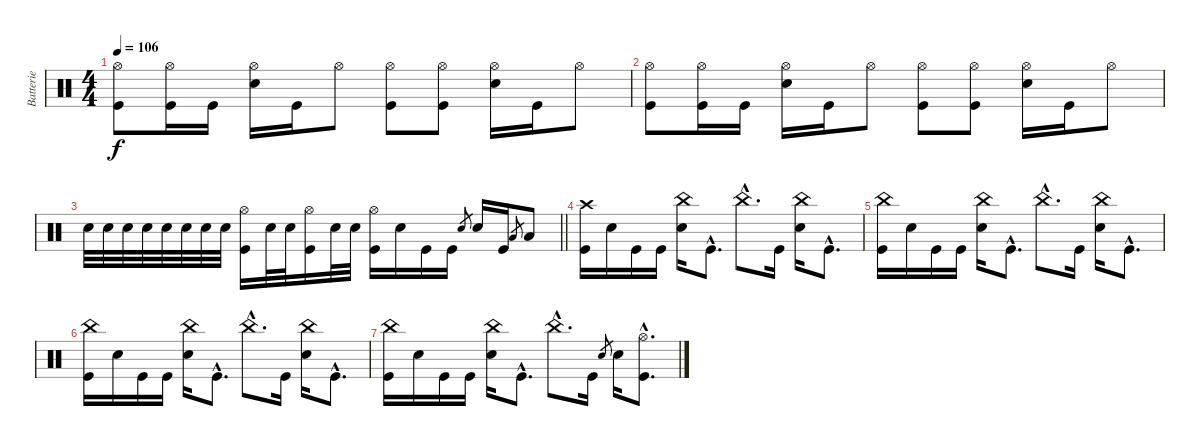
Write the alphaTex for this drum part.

\track ("Batterie" "Batterie") {instrument percussion}
\staff {score}
\articulation defaults
\ts (4 4)
\tempo 106
\clef neutral
\ks c
("Hi-Hat (open)" "Kick (hit)").8{dy f} ("Hi-Hat (open)" "Kick (hit)").16 "Kick (hit)".16 ("Hi-Hat (open)" "Electric Snare (hit)").16 "Kick (hit)".16 "Hi-Hat (open)".8 ("Hi-Hat (open)" "Kick (hit)").8 ("Hi-Hat (open)" "Kick (hit)").8 ("Hi-Hat (open)" "Electric Snare (hit)").16 "Kick (hit)".16 "Hi-Hat (open)".8 |
("Hi-Hat (open)" "Kick (hit)").8 ("Hi-Hat (open)" "Kick (hit)").16 "Kick (hit)".16 ("Hi-Hat (open)" "Electric Snare (hit)").16 "Kick (hit)".16 "Hi-Hat (open)".8 ("Hi-Hat (open)" "Kick (hit)").8 ("Hi-Hat (open)" "Kick (hit)").8 ("Hi-Hat (open)" "Electric Snare (hit)").16 "Kick (hit)".16 "Hi-Hat (open)".8 |
\barLineRight lightlight "Electric Snare (hit)".32 "Electric Snare (hit)".32 "Electric Snare (hit)".32 "Electric Snare (hit)".32 "Electric Snare (hit)".32 "Electric Snare (hit)".32 "Electric Snare (hit)".32 "Electric Snare (hit)".32
("Hi-Hat (open)" "Kick (hit)").16 "Electric Snare (hit)".32 "Electric Snare (hit)".32 ("Hi-Hat (open)" "Kick (hit)").16 "Electric Snare (hit)".32 "Electric Snare (hit)".32 ("Hi-Hat (open)" "Kick (hit)").16 "Electric Snare (hit)".16 "Kick (hit)".16 "Kick (hit)".16 "Electric Snare (hit)".8{gr} "Electric Snare (hit)".16 "Kick (hit)".16 "Low Floor Tom (hit)".8{gr} "Low Floor Tom (hit)".8 |
("Crash high (hit)" "Kick (hit)").16 "Electric Snare (hit)".16 "Kick (hit)".16 "Kick (hit)".16 ("China (hit)" "Electric Snare (hit)").16 "Kick (hit)"{hac}.8{d} "China (hit)"{hac}.8{d} "Kick (hit)".16 ("China (hit)" "Electric Snare (hit)").16 "Kick (hit)"{hac}.8{d} |
("China (hit)" "Kick (hit)").16 "Electric Snare (hit)".16 "Kick (hit)".16 "Kick (hit)".16 ("China (hit)" "Electric Snare (hit)").16 "Kick (hit)"{hac}.8{d} "China (hit)"{hac}.8{d} "Kick (hit)".16 ("China (hit)" "Electric Snare (hit)").16 "Kick (hit)"{hac}.8{d} |
("China (hit)" "Kick (hit)").16 "Electric Snare (hit)".16 "Kick (hit)".16 "Kick (hit)".16 ("China (hit)" "Electric Snare (hit)").16 "Kick (hit)"{hac}.8{d} "China (hit)"{hac}.8{d} "Kick (hit)".16 ("China (hit)" "Electric Snare (hit)").16 "Kick (hit)"{hac}.8{d} |
("China (hit)" "Kick (hit)").16 "Electric Snare (hit)".16 "Kick (hit)".16 "Kick (hit)".16 ("China (hit)" "Electric Snare (hit)").16 "Kick (hit)"{hac}.8{d} "China (hit)"{hac}.8{d} "Kick (hit)".16 "Electric Snare (hit)".8{gr} "Electric Snare (hit)".16 ("Hi-Hat (open)"{hac} "Kick (hit)"{hac}).8{d}
